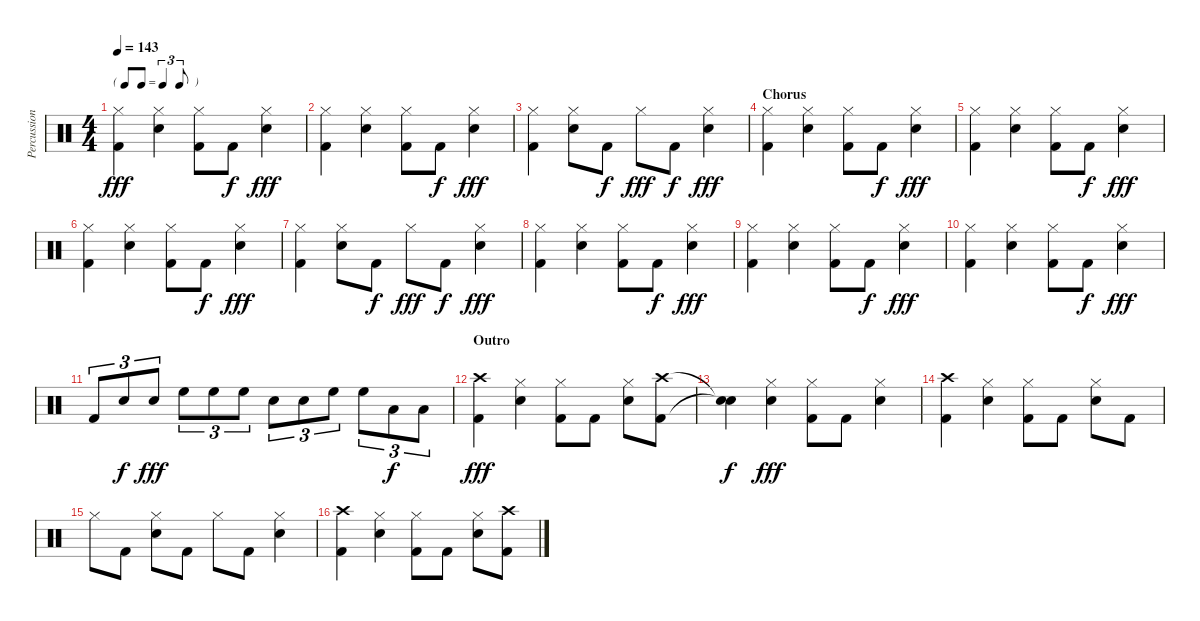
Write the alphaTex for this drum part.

\track ("Percussion" "Percussion") {instrument percussion}
\staff {score}
\articulation defaults
\ts (4 4)
\tf triplet8th
\tempo 143
\clef neutral
\ks c
("Hi-Hat (closed)" "Kick (hit) 2").4{dy fff} ("Hi-Hat (closed)" "Snare (hit) 2").4 ("Hi-Hat (closed)" "Kick (hit) 2").8 "Kick (hit) 2".8{dy f} ("Hi-Hat (closed)" "Snare (hit) 2").4{dy fff} |
("Hi-Hat (closed)" "Kick (hit) 2").4 ("Hi-Hat (closed)" "Snare (hit) 2").4 ("Hi-Hat (closed)" "Kick (hit) 2").8 "Kick (hit) 2".8{dy f} ("Hi-Hat (closed)" "Snare (hit) 2").4{dy fff} |
("Hi-Hat (closed)" "Kick (hit) 2").4 ("Hi-Hat (closed)" "Snare (hit) 2").8 "Kick (hit) 2".8{dy f} "Hi-Hat (closed)".8{dy fff} "Kick (hit) 2".8{dy f} ("Hi-Hat (closed)" "Snare (hit) 2").4{dy fff} |
\section ("" "Chorus")
("Hi-Hat (closed)" "Kick (hit) 2").4 ("Hi-Hat (closed)" "Snare (hit) 2").4 ("Hi-Hat (closed)" "Kick (hit) 2").8 "Kick (hit) 2".8{dy f} ("Hi-Hat (closed)" "Snare (hit) 2").4{dy fff} |
("Hi-Hat (closed)" "Kick (hit) 2").4 ("Hi-Hat (closed)" "Snare (hit) 2").4 ("Hi-Hat (closed)" "Kick (hit) 2").8 "Kick (hit) 2".8{dy f} ("Hi-Hat (closed)" "Snare (hit) 2").4{dy fff} |
("Hi-Hat (closed)" "Kick (hit) 2").4 ("Hi-Hat (closed)" "Snare (hit) 2").4 ("Hi-Hat (closed)" "Kick (hit) 2").8 "Kick (hit) 2".8{dy f} ("Hi-Hat (closed)" "Snare (hit) 2").4{dy fff} |
("Hi-Hat (closed)" "Kick (hit) 2").4 ("Hi-Hat (closed)" "Snare (hit) 2").8 "Kick (hit) 2".8{dy f} "Hi-Hat (closed)".8{dy fff} "Kick (hit) 2".8{dy f} ("Hi-Hat (closed)" "Snare (hit) 2").4{dy fff} |
("Hi-Hat (closed)" "Kick (hit) 2").4 ("Hi-Hat (closed)" "Snare (hit) 2").4 ("Hi-Hat (closed)" "Kick (hit) 2").8 "Kick (hit) 2".8{dy f} ("Hi-Hat (closed)" "Snare (hit) 2").4{dy fff} |
("Hi-Hat (closed)" "Kick (hit) 2").4 ("Hi-Hat (closed)" "Snare (hit) 2").4 ("Hi-Hat (closed)" "Kick (hit) 2").8 "Kick (hit) 2".8{dy f} ("Hi-Hat (closed)" "Snare (hit) 2").4{dy fff} |
("Hi-Hat (closed)" "Kick (hit) 2").4 ("Hi-Hat (closed)" "Snare (hit) 2").4 ("Hi-Hat (closed)" "Kick (hit) 2").8 "Kick (hit) 2".8{dy f} ("Hi-Hat (closed)" "Snare (hit) 2").4{dy fff} |
"Kick (hit) 2".8{tu (3 2)} "Snare (hit) 2".8{tu (3 2) dy f} "Snare (hit) 2".8{tu (3 2) dy fff} "High Floor Tom (hit)".8{tu (3 2)} "High Floor Tom (hit)".8{tu (3 2)} "High Floor Tom (hit)".8{tu (3 2)} "Snare (hit) 2".8{tu (3 2)} "Snare (hit) 2".8{tu (3 2)} "High Floor Tom (hit)".8{tu (3 2)} "High Floor Tom (hit)".8{tu (3 2)} "Low Tom (hit)".8{tu (3 2) dy f} "Low Tom (hit)".8{tu (3 2)} |
\section ("" "Outro")
("Crash high (hit)" "Kick (hit) 2").4{dy fff} ("Hi-Hat (closed)" "Snare (hit) 2").4 ("Hi-Hat (closed)" "Kick (hit) 2").8 "Kick (hit) 2".8 ("Hi-Hat (closed)" "Snare (hit) 2").8 ("Crash high (hit)" "Kick (hit) 2").8 |
("Snare (hit)"{t} "Snare (hit)"{t}).4{dy f} ("Hi-Hat (closed)" "Snare (hit) 2").4{dy fff} ("Hi-Hat (closed)" "Kick (hit) 2").8 "Kick (hit) 2".8 ("Hi-Hat (closed)" "Snare (hit) 2").4 |
("Crash high (hit)" "Kick (hit) 2").4 ("Hi-Hat (closed)" "Snare (hit) 2").4 ("Hi-Hat (closed)" "Kick (hit) 2").8 "Kick (hit) 2".8 ("Hi-Hat (closed)" "Snare (hit) 2").8 "Kick (hit) 2".8 |
"Hi-Hat (closed)".8 "Kick (hit) 2".8 ("Hi-Hat (closed)" "Snare (hit) 2").8 "Kick (hit) 2".8 "Hi-Hat (closed)".8 "Kick (hit) 2".8 ("Hi-Hat (closed)" "Snare (hit) 2").4 |
("Crash high (hit)" "Kick (hit) 2").4 ("Hi-Hat (closed)" "Snare (hit) 2").4 ("Hi-Hat (closed)" "Kick (hit) 2").8 "Kick (hit) 2".8 ("Hi-Hat (closed)" "Snare (hit) 2").8 ("Crash high (hit)" "Kick (hit) 2").8
